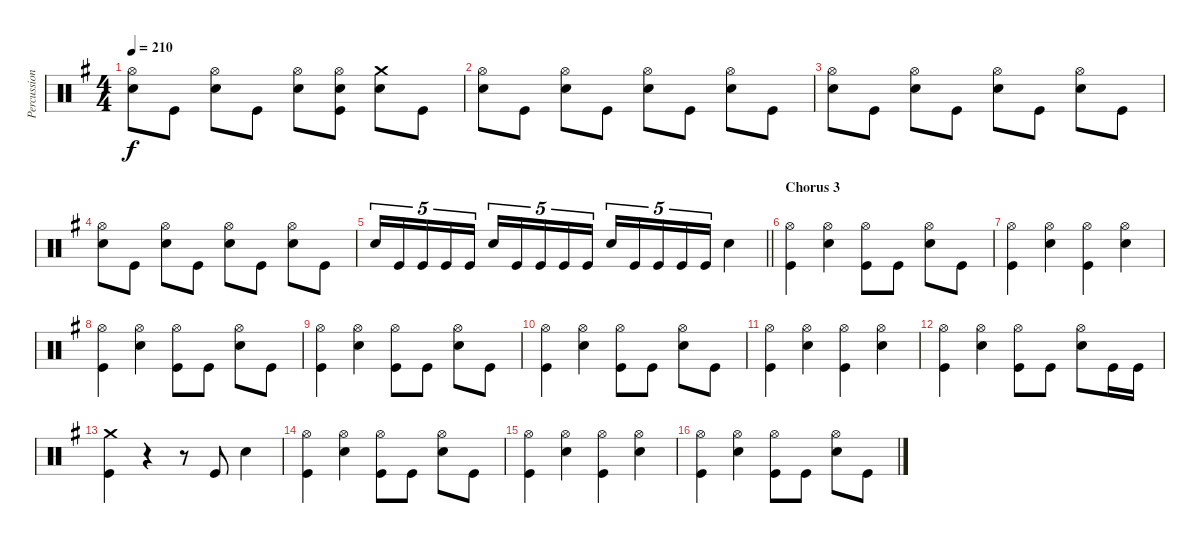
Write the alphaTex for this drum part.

\track ("Percussion" "Percussion") {instrument percussion}
\staff {score}
\articulation defaults
\ts (4 4)
\tempo 210
\clef neutral
\ks g
("Hi-Hat (open)" "Snare (hit) 2").8{dy f} "Kick (hit)".8 ("Hi-Hat (open)" "Snare (hit) 2").8 "Kick (hit)".8 ("Hi-Hat (open)" "Snare (hit) 2").8 ("Hi-Hat (open)" "Snare (hit) 2" "Kick (hit)").8 ("Crash medium (hit)" "Snare (hit) 2").8 "Kick (hit)".8 |
("Hi-Hat (open)" "Snare (hit) 2").8 "Kick (hit)".8 ("Hi-Hat (open)" "Snare (hit) 2").8 "Kick (hit)".8 ("Hi-Hat (open)" "Snare (hit) 2").8 "Kick (hit)".8 ("Hi-Hat (open)" "Snare (hit) 2").8 "Kick (hit)".8 |
("Hi-Hat (open)" "Snare (hit) 2").8 "Kick (hit)".8 ("Hi-Hat (open)" "Snare (hit) 2").8 "Kick (hit)".8 ("Hi-Hat (open)" "Snare (hit) 2").8 "Kick (hit)".8 ("Hi-Hat (open)" "Snare (hit) 2").8 "Kick (hit)".8 |
("Hi-Hat (open)" "Snare (hit) 2").8 "Kick (hit)".8 ("Hi-Hat (open)" "Snare (hit) 2").8 "Kick (hit)".8 ("Hi-Hat (open)" "Snare (hit) 2").8 "Kick (hit)".8 ("Hi-Hat (open)" "Snare (hit) 2").8 "Kick (hit)".8 |
\barLineRight lightlight "Snare (hit) 2".16{tu (5 4)} "Kick (hit)".16{tu (5 4)} "Kick (hit)".16{tu (5 4)} "Kick (hit)".16{tu (5 4)} "Kick (hit)".16{tu (5 4)} "Snare (hit) 2".16{tu (5 4)} "Kick (hit)".16{tu (5 4)} "Kick (hit)".16{tu (5 4)} "Kick (hit)".16{tu (5 4)} "Kick (hit)".16{tu (5 4)} "Snare (hit) 2".16{tu (5 4)} "Kick (hit)".16{tu (5 4)} "Kick (hit)".16{tu (5 4)} "Kick (hit)".16{tu (5 4)} "Kick (hit)".16{tu (5 4)} "Snare (hit) 2".4
|
\section ("" "Chorus 3")
("Hi-Hat (open)" "Kick (hit)").4 ("Hi-Hat (open)" "Snare (hit) 2").4 ("Hi-Hat (open)" "Kick (hit)").8 "Kick (hit)".8 ("Hi-Hat (open)" "Snare (hit) 2").8 "Kick (hit)".8 |
("Hi-Hat (open)" "Kick (hit)").4 ("Hi-Hat (open)" "Snare (hit) 2").4 ("Hi-Hat (open)" "Kick (hit)").4 ("Hi-Hat (open)" "Snare (hit) 2").4 |
("Hi-Hat (open)" "Kick (hit)").4 ("Hi-Hat (open)" "Snare (hit) 2").4 ("Hi-Hat (open)" "Kick (hit)").8 "Kick (hit)".8 ("Hi-Hat (open)" "Snare (hit) 2").8 "Kick (hit)".8 |
("Hi-Hat (open)" "Kick (hit)").4 ("Hi-Hat (open)" "Snare (hit) 2").4 ("Hi-Hat (open)" "Kick (hit)").8 "Kick (hit)".8 ("Hi-Hat (open)" "Snare (hit) 2").8 "Kick (hit)".8 |
("Hi-Hat (open)" "Kick (hit)").4 ("Hi-Hat (open)" "Snare (hit) 2").4 ("Hi-Hat (open)" "Kick (hit)").8 "Kick (hit)".8 ("Hi-Hat (open)" "Snare (hit) 2").8 "Kick (hit)".8 |
("Hi-Hat (open)" "Kick (hit)").4 ("Hi-Hat (open)" "Snare (hit) 2").4 ("Hi-Hat (open)" "Kick (hit)").4 ("Hi-Hat (open)" "Snare (hit) 2").4 |
("Hi-Hat (open)" "Kick (hit)").4 ("Hi-Hat (open)" "Snare (hit) 2").4 ("Hi-Hat (open)" "Kick (hit)").8 "Kick (hit)".8 ("Hi-Hat (open)" "Snare (hit) 2").8 "Kick (hit)".16 "Kick (hit)".16 |
("Crash medium (hit)" "Kick (hit)").4 r.4 r.8 "Kick (hit)".8 "Snare (hit) 2".4 |
("Hi-Hat (open)" "Kick (hit)").4 ("Hi-Hat (open)" "Snare (hit) 2").4 ("Hi-Hat (open)" "Kick (hit)").8 "Kick (hit)".8 ("Hi-Hat (open)" "Snare (hit) 2").8 "Kick (hit)".8 |
("Hi-Hat (open)" "Kick (hit)").4 ("Hi-Hat (open)" "Snare (hit) 2").4 ("Hi-Hat (open)" "Kick (hit)").4 ("Hi-Hat (open)" "Snare (hit) 2").4 |
("Hi-Hat (open)" "Kick (hit)").4 ("Hi-Hat (open)" "Snare (hit) 2").4 ("Hi-Hat (open)" "Kick (hit)").8 "Kick (hit)".8 ("Hi-Hat (open)" "Snare (hit) 2").8 "Kick (hit)".8
